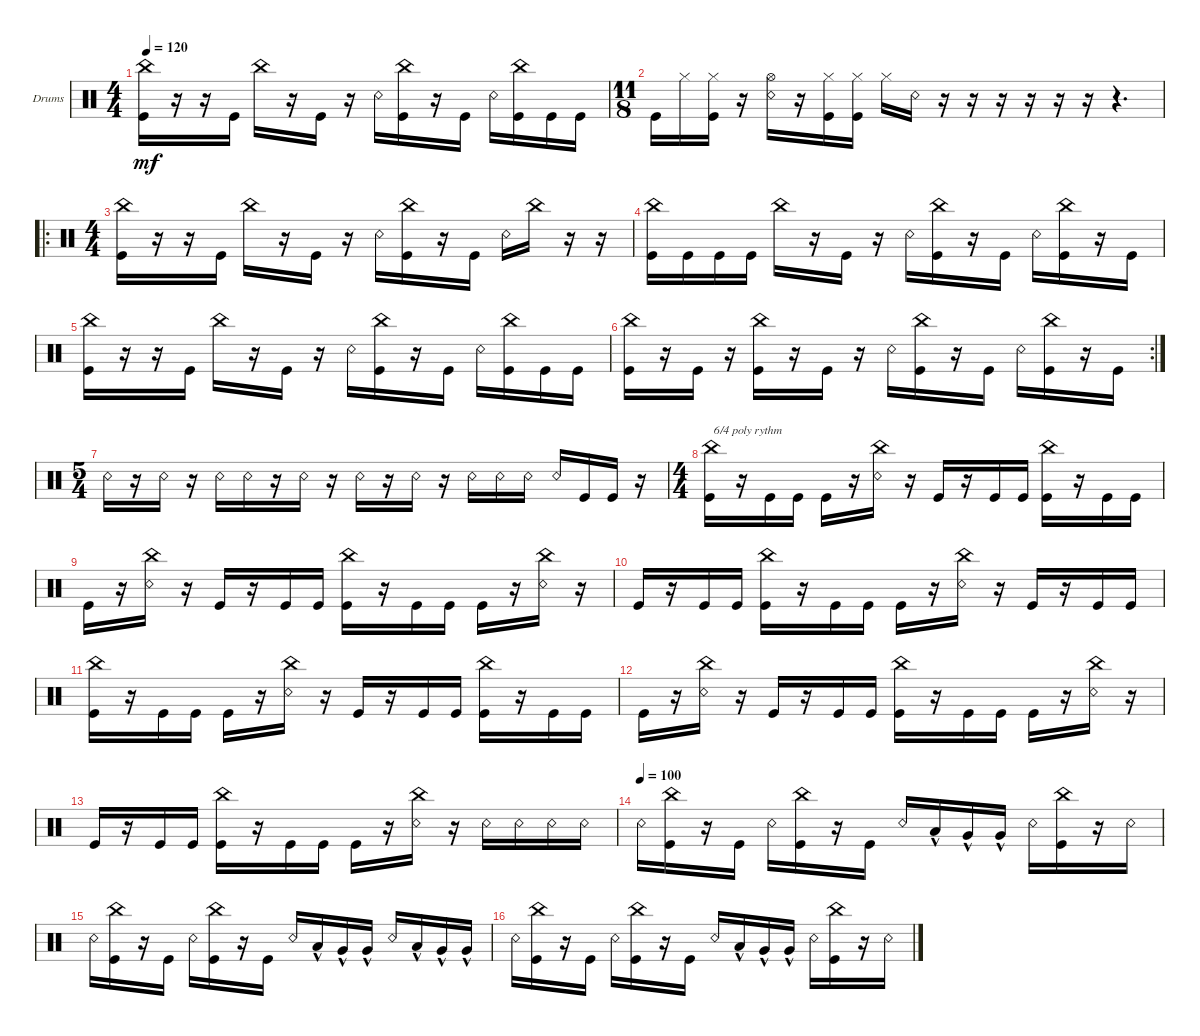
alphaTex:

\defaultSystemsLayout 4
\bracketExtendMode groupsimilarinstruments
\firstSystemTrackNameOrientation horizontal
\otherSystemsTrackNameOrientation horizontal
\track ("Drumkit" "Drums") {solo instrument percussion}
\staff {score}
\articulation defaults
\ts (4 4)
\tempo 120
\clef neutral
\ks c
("Kick (hit)" "China (hit)").16{dy mf} r.16 r.16 "Kick (hit)".16 "China (hit)".16 r.16 "Kick (hit)".16 r.16 "Snare (rim shot)".16 ("Kick (hit)" "China (hit)").16 r.16 "Kick (hit)".16 "Snare (rim shot)".16 ("Kick (hit)" "China (hit)").16 "Kick (hit)".16 "Kick (hit)".16 |
\ts (11 8)
"Kick (hit)".16 "Hi-Hat (closed)".16 ("Kick (hit)" "Hi-Hat (closed)").16 r.16 ("Snare (rim shot)" "Hi-Hat (open)").16 r.16 ("Kick (hit)" "Hi-Hat (closed)").16 ("Kick (hit)" "Hi-Hat (closed)").16 "Hi-Hat (closed)".16 "Snare (rim shot)".16 r.16 r.16 r.16 r.16 r.16 r.16 r.4{d} |
\ro
\ts (4 4)
("Kick (hit)" "China (hit)").16 r.16 r.16 "Kick (hit)".16 "China (hit)".16 r.16 "Kick (hit)".16 r.16 "Snare (rim shot)".16 ("Kick (hit)" "China (hit)").16 r.16 "Kick (hit)".16 "Snare (rim shot)".16 "China (hit)".16 r.16 r.16 |
("Kick (hit)" "China (hit)").16 "Kick (hit)".16 "Kick (hit)".16 "Kick (hit)".16 "China (hit)".16 r.16 "Kick (hit)".16 r.16 "Snare (rim shot)".16 ("Kick (hit)" "China (hit)").16 r.16 "Kick (hit)".16 "Snare (rim shot)".16 ("Kick (hit)" "China (hit)").16 r.16 "Kick (hit)".16 |
("Kick (hit)" "China (hit)").16 r.16 r.16 "Kick (hit)".16 "China (hit)".16 r.16 "Kick (hit)".16 r.16 "Snare (rim shot)".16 ("Kick (hit)" "China (hit)").16 r.16 "Kick (hit)".16 "Snare (rim shot)".16 ("Kick (hit)" "China (hit)").16 "Kick (hit)".16 "Kick (hit)".16 |
\rc 2
("Kick (hit)" "China (hit)").16 r.16 "Kick (hit)".16 r.16 ("China (hit)" "Kick (hit)").16 r.16 "Kick (hit)".16 r.16 "Snare (rim shot)".16 ("Kick (hit)" "China (hit)").16 r.16 "Kick (hit)".16 "Snare (rim shot)".16 ("Kick (hit)" "China (hit)").16 r.16 "Kick (hit)".16 |
\ts (5 4)
"Snare (rim shot)".16 r.16 "Snare (rim shot)".16 r.16 "Snare (rim shot)".16 "Snare (rim shot)".16 r.16 "Snare (rim shot)".16 r.16 "Snare (rim shot)".16 r.16 "Snare (rim shot)".16 r.16 "Snare (rim shot)".16 "Snare (rim shot)".16 "Snare (rim shot)".16 "Snare (rim shot)".16 "Kick (hit)".16 "Kick (hit)".16 r.16 |
\ts (4 4)
("Kick (hit)" "China (hit)").16{txt "6/4 poly rythm"} r.16 "Kick (hit)".16 "Kick (hit)".16 "Kick (hit)".16 r.16 ("Snare (rim shot)" "China (hit)").16 r.16 "Kick (hit)".16 r.16 "Kick (hit)".16 "Kick (hit)".16 ("Kick (hit)" "China (hit)").16 r.16 "Kick (hit)".16 "Kick (hit)".16 |
"Kick (hit)".16 r.16 ("Snare (rim shot)" "China (hit)").16 r.16 "Kick (hit)".16 r.16 "Kick (hit)".16 "Kick (hit)".16 ("Kick (hit)" "China (hit)").16 r.16 "Kick (hit)".16 "Kick (hit)".16 "Kick (hit)".16 r.16 ("Snare (rim shot)" "China (hit)").16 r.16 |
"Kick (hit)".16 r.16 "Kick (hit)".16 "Kick (hit)".16 ("Kick (hit)" "China (hit)").16 r.16 "Kick (hit)".16 "Kick (hit)".16 "Kick (hit)".16 r.16 ("Snare (rim shot)" "China (hit)").16 r.16 "Kick (hit)".16 r.16 "Kick (hit)".16 "Kick (hit)".16 |
("Kick (hit)" "China (hit)").16 r.16 "Kick (hit)".16 "Kick (hit)".16 "Kick (hit)".16 r.16 ("Snare (rim shot)" "China (hit)").16 r.16 "Kick (hit)".16 r.16 "Kick (hit)".16 "Kick (hit)".16 ("Kick (hit)" "China (hit)").16 r.16 "Kick (hit)".16 "Kick (hit)".16 |
"Kick (hit)".16 r.16 ("Snare (rim shot)" "China (hit)").16 r.16 "Kick (hit)".16 r.16 "Kick (hit)".16 "Kick (hit)".16 ("Kick (hit)" "China (hit)").16 r.16 "Kick (hit)".16 "Kick (hit)".16 "Kick (hit)".16 r.16 ("Snare (rim shot)" "China (hit)").16 r.16 |
"Kick (hit)".16 r.16 "Kick (hit)".16 "Kick (hit)".16 ("Kick (hit)" "China (hit)").16 r.16 "Kick (hit)".16 "Kick (hit)".16 "Kick (hit)".16 r.16 ("Snare (rim shot)" "China (hit)").16 r.16 "Snare (rim shot)".16 "Snare (rim shot)".16 "Snare (rim shot)".16 "Snare (rim shot)".16 |
\tempo (100)
"Snare (rim shot)".16 ("China (hit)" "Kick (hit)").16 r.16 "Kick (hit)".16 "Snare (rim shot)".16 ("China (hit)" "Kick (hit)").16 r.16 "Kick (hit)".16 "Snare (rim shot)".16 "Low Tom (hit)"{hac}.16 "Very Low Tom (hit)"{hac}.16 "Very Low Tom (hit)"{hac}.16 "Snare (rim shot)".16 ("China (hit)" "Kick (hit)").16 r.16 "Snare (rim shot)".16 |
"Snare (rim shot)".16 ("China (hit)" "Kick (hit)").16 r.16 "Kick (hit)".16 "Snare (rim shot)".16 ("China (hit)" "Kick (hit)").16 r.16 "Kick (hit)".16 "Snare (rim shot)".16 "Low Tom (hit)"{hac}.16 "Very Low Tom (hit)"{hac}.16 "Very Low Tom (hit)"{hac}.16 "Snare (rim shot)".16 "Low Tom (hit)"{hac}.16 "Very Low Tom (hit)"{hac}.16 "Very Low Tom (hit)"{hac}.16 |
"Snare (rim shot)".16 ("China (hit)" "Kick (hit)").16 r.16 "Kick (hit)".16 "Snare (rim shot)".16 ("China (hit)" "Kick (hit)").16 r.16 "Kick (hit)".16 "Snare (rim shot)".16 "Low Tom (hit)"{hac}.16 "Very Low Tom (hit)"{hac}.16 "Very Low Tom (hit)"{hac}.16 "Snare (rim shot)".16 ("China (hit)" "Kick (hit)").16 r.16 "Snare (rim shot)".16
